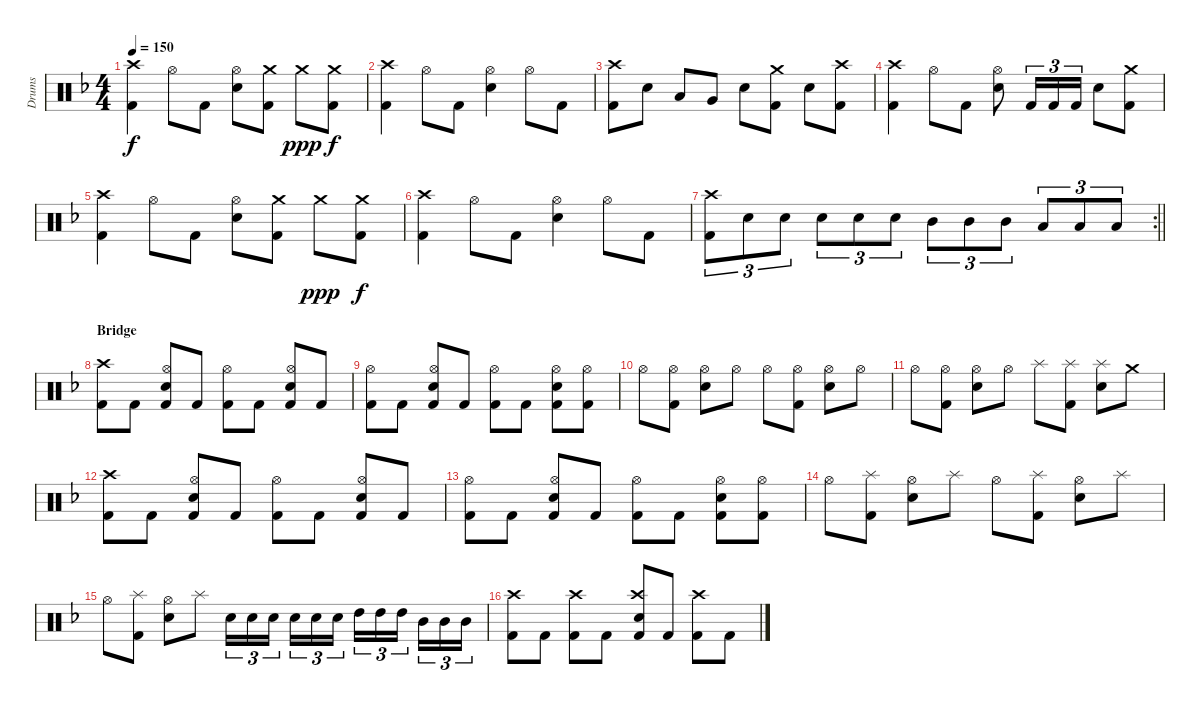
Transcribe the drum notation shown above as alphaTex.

\track ("Drums" "Drums") {instrument percussion}
\staff {score}
\articulation defaults
\ts (4 4)
\tempo 150
\clef neutral
\ks dminor
("Kick (hit) 2" "Crash high (hit)").4{dy f} "Hi-Hat (open)".8 "Kick (hit) 2".8 ("Snare (hit) 2" "Hi-Hat (open)").8 ("Kick (hit) 2" "Crash medium (hit)").8 "Crash medium (hit)".8{dy ppp} ("Kick (hit) 2" "Crash medium (hit)").8{dy f} |
("Kick (hit) 2" "Crash high (hit)").4 "Hi-Hat (open)".8 "Kick (hit) 2".8 ("Snare (hit) 2" "Hi-Hat (open)").4 "Hi-Hat (open)".8 "Kick (hit) 2".8 |
("Kick (hit) 2" "Crash high (hit)").8 "Snare (hit) 2".8 "Low Tom (hit)".8 "Very Low Tom (hit)".8 "Snare (hit) 2".8 ("Kick (hit) 2" "Crash medium (hit)").8 "Snare (hit) 2".8 ("Kick (hit) 2" "Crash high (hit)").8 |
("Kick (hit) 2" "Crash high (hit)").4 "Hi-Hat (open)".8 "Kick (hit) 2".8 ("Snare (hit) 2" "Hi-Hat (open)").8 "Kick (hit) 2".16{tu (3 2)} "Kick (hit) 2".16{tu (3 2)} "Kick (hit) 2".16{tu (3 2)} "Snare (hit) 2".8 ("Kick (hit) 2" "Crash medium (hit)").8 |
("Kick (hit) 2" "Crash high (hit)").4 "Hi-Hat (open)".8 "Kick (hit) 2".8 ("Snare (hit) 2" "Hi-Hat (open)").8 ("Kick (hit) 2" "Crash medium (hit)").8 "Crash medium (hit)".8{dy ppp} ("Kick (hit) 2" "Crash medium (hit)").8{dy f} |
("Kick (hit) 2" "Crash high (hit)").4 "Hi-Hat (open)".8 "Kick (hit) 2".8 ("Snare (hit) 2" "Hi-Hat (open)").4 "Hi-Hat (open)".8 "Kick (hit) 2".8 |
\rc 2
\barLineRight lightlight
("Kick (hit) 2" "Crash high (hit)").8{tu (3 2)} "Snare (hit) 2".8{tu (3 2)} "Snare (hit) 2".8{tu (3 2)} "Snare (hit) 2".8{tu (3 2)} "Snare (hit) 2".8{tu (3 2)} "Snare (hit) 2".8{tu (3 2)} "Mid Tom (hit)".8{tu (3 2)} "Mid Tom (hit)".8{tu (3 2)} "Mid Tom (hit)".8{tu (3 2)} "Low Tom (hit)".8{tu (3 2)} "Low Tom (hit)".8{tu (3 2)} "Low Tom (hit)".8{tu (3 2)} |
\section ("" "Bridge")
("Kick (hit) 2" "Crash high (hit)").8 "Kick (hit) 2".8 ("Kick (hit) 2" "Snare (hit) 2" "Hi-Hat (open)").8 "Kick (hit) 2".8 ("Kick (hit) 2" "Hi-Hat (open)").8 "Kick (hit) 2".8 ("Kick (hit) 2" "Snare (hit) 2" "Hi-Hat (open)").8 "Kick (hit) 2".8 |
("Kick (hit) 2" "Hi-Hat (open)").8 "Kick (hit) 2".8 ("Kick (hit) 2" "Snare (hit) 2" "Hi-Hat (open)").8 "Kick (hit) 2".8 ("Kick (hit) 2" "Hi-Hat (open)").8 "Kick (hit) 2".8 ("Kick (hit) 2" "Snare (hit) 2" "Hi-Hat (open)").8 ("Kick (hit) 2" "Hi-Hat (open)").8 |
"Hi-Hat (open)".8 ("Kick (hit) 2" "Hi-Hat (open)").8 ("Snare (hit) 2" "Hi-Hat (open)").8 "Hi-Hat (open)".8 "Hi-Hat (open)".8 ("Kick (hit) 2" "Hi-Hat (open)").8 ("Snare (hit) 2" "Hi-Hat (open)").8 "Hi-Hat (open)".8 |
"Hi-Hat (open)".8 ("Kick (hit) 2" "Hi-Hat (open)").8 ("Snare (hit) 2" "Hi-Hat (open)").8 "Hi-Hat (open)".8 "Splash (hit)".8 ("Kick (hit) 2" "Splash (hit)").8 ("Snare (hit) 2" "Splash (hit)").8 "Crash medium (hit)".8 |
("Kick (hit) 2" "Crash high (hit)").8 "Kick (hit) 2".8 ("Kick (hit) 2" "Snare (hit) 2" "Hi-Hat (open)").8 "Kick (hit) 2".8 ("Kick (hit) 2" "Hi-Hat (open)").8 "Kick (hit) 2".8 ("Kick (hit) 2" "Snare (hit) 2" "Hi-Hat (open)").8 "Kick (hit) 2".8 |
("Kick (hit) 2" "Hi-Hat (open)").8 "Kick (hit) 2".8 ("Kick (hit) 2" "Snare (hit) 2" "Hi-Hat (open)").8 "Kick (hit) 2".8 ("Kick (hit) 2" "Hi-Hat (open)").8 "Kick (hit) 2".8 ("Kick (hit) 2" "Snare (hit) 2" "Hi-Hat (open)").8 ("Kick (hit) 2" "Hi-Hat (open)").8 |
"Hi-Hat (open)".8 ("Kick (hit) 2" "Splash (hit)").8 ("Snare (hit) 2" "Hi-Hat (open)").8 "Splash (hit)".8 "Hi-Hat (open)".8 ("Kick (hit) 2" "Splash (hit)").8 ("Snare (hit) 2" "Hi-Hat (open)").8 "Splash (hit)".8 |
"Hi-Hat (open)".8 ("Kick (hit) 2" "Splash (hit)").8 ("Snare (hit) 2" "Hi-Hat (open)").8 "Splash (hit)".8 "Snare (hit) 2".16{tu (3 2)} "Snare (hit) 2".16{tu (3 2)} "Snare (hit) 2".16{tu (3 2) beam splitsecondary} "Snare (hit) 2".16{tu (3 2)} "Snare (hit) 2".16{tu (3 2)} "Snare (hit) 2".16{tu (3 2)} "High Tom (hit)".16{tu (3 2)} "High Tom (hit)".16{tu (3 2)} "High Tom (hit)".16{tu (3 2) beam splitsecondary} "Mid Tom (hit)".16{tu (3 2)} "Mid Tom (hit)".16{tu (3 2)} "Mid Tom (hit)".16{tu (3 2)} |
("Kick (hit) 2" "Crash high (hit)").8 "Kick (hit) 2".8 ("Kick (hit) 2" "Crash high (hit)").8 "Kick (hit) 2".8 ("Kick (hit) 2" "Snare (hit) 2" "Crash high (hit)").8 "Kick (hit) 2".8 ("Kick (hit) 2" "Crash high (hit)").8 "Kick (hit) 2".8
